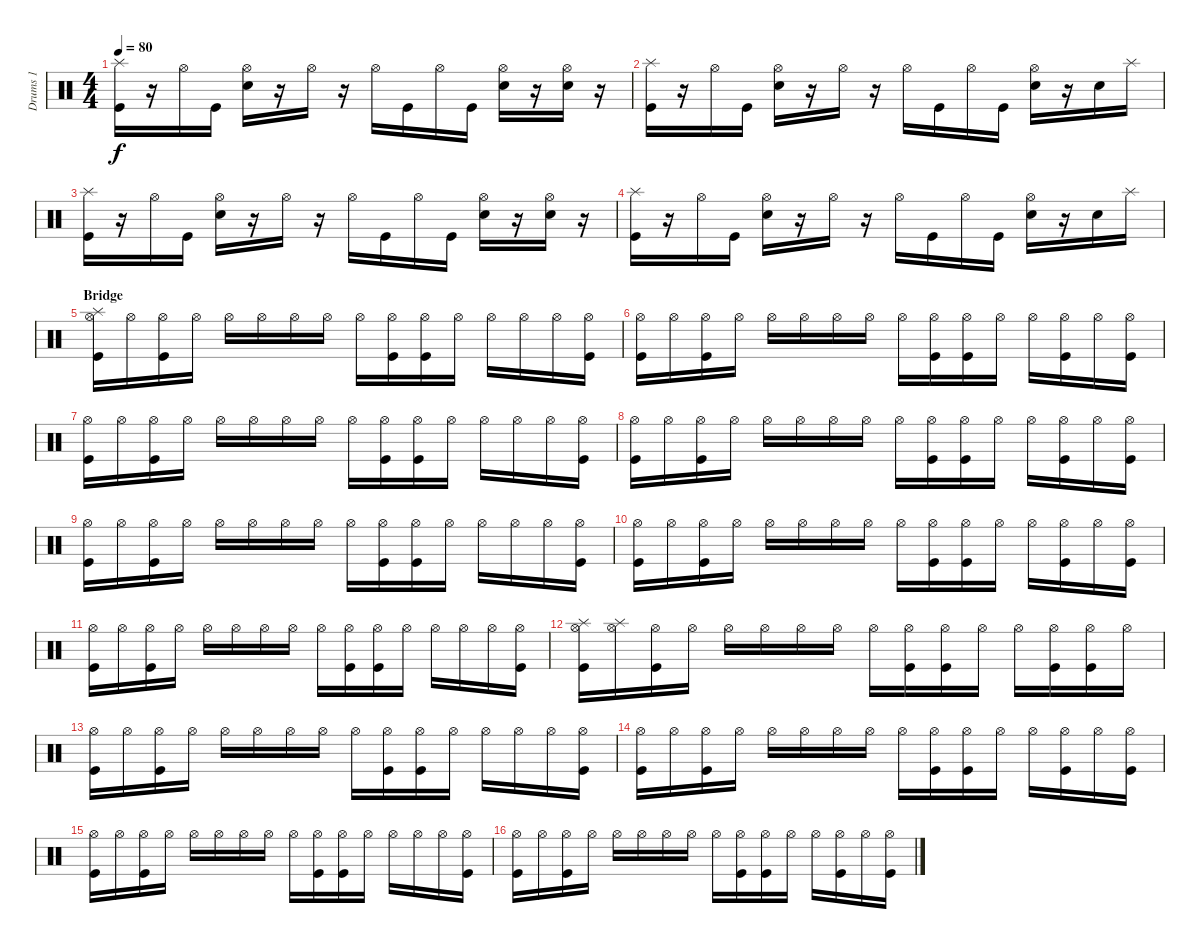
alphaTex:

\track ("Drums 1" "Drums 1") {instrument percussion}
\staff {score}
\articulation defaults
\ts (4 4)
\tempo 80
\clef neutral
\ks c
("Splash (hit)" "Kick (hit)").16{dy f} r.16 "Hi-Hat (open)".16 "Kick (hit)".16 ("Hi-Hat (open)" "Electric Snare (hit)").16 r.16 "Hi-Hat (open)".16 r.16 "Hi-Hat (open)".16 "Kick (hit)".16 "Hi-Hat (open)".16 "Kick (hit)".16 ("Hi-Hat (open)" "Electric Snare (hit)").16 r.16 ("Hi-Hat (open)" "Electric Snare (hit)").16 r.16 |
("Splash (hit)" "Kick (hit)").16 r.16 "Hi-Hat (open)".16 "Kick (hit)".16 ("Hi-Hat (open)" "Electric Snare (hit)").16 r.16 "Hi-Hat (open)".16 r.16 "Hi-Hat (open)".16 "Kick (hit)".16 "Hi-Hat (open)".16 "Kick (hit)".16 ("Hi-Hat (open)" "Electric Snare (hit)").16 r.16 "Electric Snare (hit)".16 "Splash (hit)".16 |
("Splash (hit)" "Kick (hit)").16 r.16 "Hi-Hat (open)".16 "Kick (hit)".16 ("Hi-Hat (open)" "Electric Snare (hit)").16 r.16 "Hi-Hat (open)".16 r.16 "Hi-Hat (open)".16 "Kick (hit)".16 "Hi-Hat (open)".16 "Kick (hit)".16 ("Hi-Hat (open)" "Electric Snare (hit)").16 r.16 ("Hi-Hat (open)" "Electric Snare (hit)").16 r.16 |
("Splash (hit)" "Kick (hit)").16 r.16 "Hi-Hat (open)".16 "Kick (hit)".16 ("Hi-Hat (open)" "Electric Snare (hit)").16 r.16 "Hi-Hat (open)".16 r.16 "Hi-Hat (open)".16 "Kick (hit)".16 "Hi-Hat (open)".16 "Kick (hit)".16 ("Hi-Hat (open)" "Electric Snare (hit)").16 r.16 "Electric Snare (hit)".16 "Splash (hit)".16 |
\section ("" "Bridge")
("Splash (hit)" "Hi-Hat (open)" "Kick (hit)").16{volume 11} "Hi-Hat (open)".16 ("Hi-Hat (open)" "Kick (hit)").16 "Hi-Hat (open)".16 "Hi-Hat (open)".16 "Hi-Hat (open)".16 "Hi-Hat (open)".16 "Hi-Hat (open)".16 "Hi-Hat (open)".16 ("Hi-Hat (open)" "Kick (hit)").16 ("Hi-Hat (open)" "Kick (hit)").16 "Hi-Hat (open)".16 "Hi-Hat (open)".16 "Hi-Hat (open)".16 "Hi-Hat (open)".16 ("Hi-Hat (open)" "Kick (hit)").16 |
("Hi-Hat (open)" "Kick (hit)").16 "Hi-Hat (open)".16 ("Hi-Hat (open)" "Kick (hit)").16 "Hi-Hat (open)".16 "Hi-Hat (open)".16 "Hi-Hat (open)".16 "Hi-Hat (open)".16 "Hi-Hat (open)".16 "Hi-Hat (open)".16 ("Hi-Hat (open)" "Kick (hit)").16 ("Hi-Hat (open)" "Kick (hit)").16 "Hi-Hat (open)".16 "Hi-Hat (open)".16 ("Hi-Hat (open)" "Kick (hit)").16 "Hi-Hat (open)".16 ("Hi-Hat (open)" "Kick (hit)").16 |
("Hi-Hat (open)" "Kick (hit)").16 "Hi-Hat (open)".16 ("Hi-Hat (open)" "Kick (hit)").16 "Hi-Hat (open)".16 "Hi-Hat (open)".16 "Hi-Hat (open)".16 "Hi-Hat (open)".16 "Hi-Hat (open)".16 "Hi-Hat (open)".16 ("Hi-Hat (open)" "Kick (hit)").16 ("Hi-Hat (open)" "Kick (hit)").16 "Hi-Hat (open)".16 "Hi-Hat (open)".16 "Hi-Hat (open)".16 "Hi-Hat (open)".16 ("Hi-Hat (open)" "Kick (hit)").16 |
("Hi-Hat (open)" "Kick (hit)").16 "Hi-Hat (open)".16 ("Hi-Hat (open)" "Kick (hit)").16 "Hi-Hat (open)".16 "Hi-Hat (open)".16 "Hi-Hat (open)".16 "Hi-Hat (open)".16 "Hi-Hat (open)".16 "Hi-Hat (open)".16 ("Hi-Hat (open)" "Kick (hit)").16 ("Hi-Hat (open)" "Kick (hit)").16 "Hi-Hat (open)".16 "Hi-Hat (open)".16 ("Hi-Hat (open)" "Kick (hit)").16 "Hi-Hat (open)".16 ("Hi-Hat (open)" "Kick (hit)").16 |
("Hi-Hat (open)" "Kick (hit)").16 "Hi-Hat (open)".16 ("Hi-Hat (open)" "Kick (hit)").16 "Hi-Hat (open)".16 "Hi-Hat (open)".16 "Hi-Hat (open)".16 "Hi-Hat (open)".16 "Hi-Hat (open)".16 "Hi-Hat (open)".16 ("Hi-Hat (open)" "Kick (hit)").16 ("Hi-Hat (open)" "Kick (hit)").16 "Hi-Hat (open)".16 "Hi-Hat (open)".16 "Hi-Hat (open)".16 "Hi-Hat (open)".16 ("Hi-Hat (open)" "Kick (hit)").16 |
("Hi-Hat (open)" "Kick (hit)").16 "Hi-Hat (open)".16 ("Hi-Hat (open)" "Kick (hit)").16 "Hi-Hat (open)".16 "Hi-Hat (open)".16 "Hi-Hat (open)".16 "Hi-Hat (open)".16 "Hi-Hat (open)".16 "Hi-Hat (open)".16 ("Hi-Hat (open)" "Kick (hit)").16 ("Hi-Hat (open)" "Kick (hit)").16 "Hi-Hat (open)".16 "Hi-Hat (open)".16 ("Hi-Hat (open)" "Kick (hit)").16 "Hi-Hat (open)".16 ("Hi-Hat (open)" "Kick (hit)").16 |
("Hi-Hat (open)" "Kick (hit)").16 "Hi-Hat (open)".16 ("Hi-Hat (open)" "Kick (hit)").16 "Hi-Hat (open)".16 "Hi-Hat (open)".16 "Hi-Hat (open)".16 "Hi-Hat (open)".16 "Hi-Hat (open)".16 "Hi-Hat (open)".16 ("Hi-Hat (open)" "Kick (hit)").16 ("Hi-Hat (open)" "Kick (hit)").16 "Hi-Hat (open)".16 "Hi-Hat (open)".16 "Hi-Hat (open)".16 "Hi-Hat (open)".16 ("Hi-Hat (open)" "Kick (hit)").16 |
("Splash (hit)" "Hi-Hat (open)" "Kick (hit)").16 ("Splash (hit)" "Hi-Hat (open)").16 ("Hi-Hat (open)" "Kick (hit)").16 "Hi-Hat (open)".16 "Hi-Hat (open)".16 "Hi-Hat (open)".16 "Hi-Hat (open)".16 "Hi-Hat (open)".16 "Hi-Hat (open)".16 ("Hi-Hat (open)" "Kick (hit)").16 ("Hi-Hat (open)" "Kick (hit)").16 "Hi-Hat (open)".16 "Hi-Hat (open)".16 ("Hi-Hat (open)" "Kick (hit)").16 ("Hi-Hat (open)" "Kick (hit)").16 "Hi-Hat (open)".16 |
("Hi-Hat (open)" "Kick (hit)").16 "Hi-Hat (open)".16 ("Hi-Hat (open)" "Kick (hit)").16 "Hi-Hat (open)".16 "Hi-Hat (open)".16 "Hi-Hat (open)".16 "Hi-Hat (open)".16 "Hi-Hat (open)".16 "Hi-Hat (open)".16 ("Hi-Hat (open)" "Kick (hit)").16 ("Hi-Hat (open)" "Kick (hit)").16 "Hi-Hat (open)".16 "Hi-Hat (open)".16 "Hi-Hat (open)".16 "Hi-Hat (open)".16 ("Hi-Hat (open)" "Kick (hit)").16 |
("Hi-Hat (open)" "Kick (hit)").16 "Hi-Hat (open)".16 ("Hi-Hat (open)" "Kick (hit)").16 "Hi-Hat (open)".16 "Hi-Hat (open)".16 "Hi-Hat (open)".16 "Hi-Hat (open)".16 "Hi-Hat (open)".16 "Hi-Hat (open)".16 ("Hi-Hat (open)" "Kick (hit)").16 ("Hi-Hat (open)" "Kick (hit)").16 "Hi-Hat (open)".16 "Hi-Hat (open)".16 ("Hi-Hat (open)" "Kick (hit)").16 "Hi-Hat (open)".16 ("Hi-Hat (open)" "Kick (hit)").16 |
("Hi-Hat (open)" "Kick (hit)").16 "Hi-Hat (open)".16 ("Hi-Hat (open)" "Kick (hit)").16 "Hi-Hat (open)".16 "Hi-Hat (open)".16 "Hi-Hat (open)".16 "Hi-Hat (open)".16 "Hi-Hat (open)".16 "Hi-Hat (open)".16 ("Hi-Hat (open)" "Kick (hit)").16 ("Hi-Hat (open)" "Kick (hit)").16 "Hi-Hat (open)".16 "Hi-Hat (open)".16 "Hi-Hat (open)".16 "Hi-Hat (open)".16 ("Hi-Hat (open)" "Kick (hit)").16 |
("Hi-Hat (open)" "Kick (hit)").16 "Hi-Hat (open)".16 ("Hi-Hat (open)" "Kick (hit)").16 "Hi-Hat (open)".16 "Hi-Hat (open)".16 "Hi-Hat (open)".16 "Hi-Hat (open)".16 "Hi-Hat (open)".16 "Hi-Hat (open)".16 ("Hi-Hat (open)" "Kick (hit)").16 ("Hi-Hat (open)" "Kick (hit)").16 "Hi-Hat (open)".16 "Hi-Hat (open)".16 ("Hi-Hat (open)" "Kick (hit)").16 "Hi-Hat (open)".16 ("Hi-Hat (open)" "Kick (hit)").16
